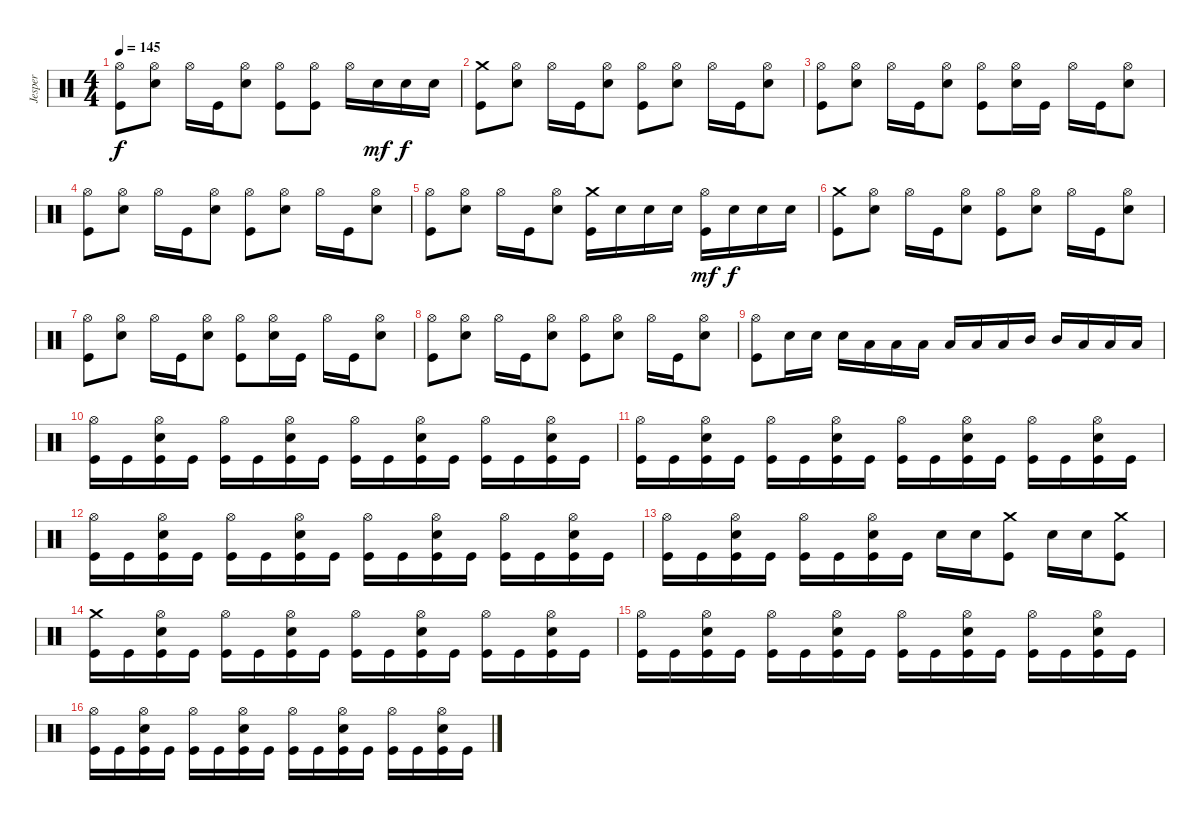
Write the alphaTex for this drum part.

\track ("Jesper" "Jesper") {instrument percussion}
\staff {score}
\articulation defaults
\ts (4 4)
\tempo 145
\clef neutral
\ks c
("Hi-Hat (open)" "Kick (hit)").8{dy f} ("Hi-Hat (open)" "Electric Snare (hit)").8 "Hi-Hat (open)".16 "Kick (hit)".16 ("Hi-Hat (open)" "Electric Snare (hit)").8 ("Hi-Hat (open)" "Kick (hit)").8 ("Hi-Hat (open)" "Kick (hit)").8 "Hi-Hat (open)".16 "Electric Snare (hit)".16{dy mf} "Electric Snare (hit)".16{dy f} "Electric Snare (hit)".16 |
("Crash medium (hit)" "Kick (hit)").8 ("Hi-Hat (open)" "Electric Snare (hit)").8 "Hi-Hat (open)".16 "Kick (hit)".16 ("Hi-Hat (open)" "Electric Snare (hit)").8 ("Hi-Hat (open)" "Kick (hit)").8 ("Hi-Hat (open)" "Electric Snare (hit)").8 "Hi-Hat (open)".16 "Kick (hit)".16 ("Hi-Hat (open)" "Electric Snare (hit)").8 |
("Hi-Hat (open)" "Kick (hit)").8 ("Hi-Hat (open)" "Electric Snare (hit)").8 "Hi-Hat (open)".16 "Kick (hit)".16 ("Hi-Hat (open)" "Electric Snare (hit)").8 ("Hi-Hat (open)" "Kick (hit)").8 ("Hi-Hat (open)" "Electric Snare (hit)").16 "Kick (hit)".16 "Hi-Hat (open)".16 "Kick (hit)".16 ("Hi-Hat (open)" "Electric Snare (hit)").8 |
("Hi-Hat (open)" "Kick (hit)").8 ("Hi-Hat (open)" "Electric Snare (hit)").8 "Hi-Hat (open)".16 "Kick (hit)".16 ("Hi-Hat (open)" "Electric Snare (hit)").8 ("Hi-Hat (open)" "Kick (hit)").8 ("Hi-Hat (open)" "Electric Snare (hit)").8 "Hi-Hat (open)".16 "Kick (hit)".16 ("Hi-Hat (open)" "Electric Snare (hit)").8 |
("Hi-Hat (open)" "Kick (hit)").8 ("Hi-Hat (open)" "Electric Snare (hit)").8 "Hi-Hat (open)".16 "Kick (hit)".16 ("Hi-Hat (open)" "Electric Snare (hit)").8 ("Crash medium (hit)" "Kick (hit)").16 "Electric Snare (hit)".16 "Electric Snare (hit)".16 "Electric Snare (hit)".16 ("Hi-Hat (open)" "Kick (hit)").16{dy mf} "Electric Snare (hit)".16{dy f} "Electric Snare (hit)".16 "Electric Snare (hit)".16 |
("Crash medium (hit)" "Kick (hit)").8 ("Hi-Hat (open)" "Electric Snare (hit)").8 "Hi-Hat (open)".16 "Kick (hit)".16 ("Hi-Hat (open)" "Electric Snare (hit)").8 ("Hi-Hat (open)" "Kick (hit)").8 ("Hi-Hat (open)" "Electric Snare (hit)").8 "Hi-Hat (open)".16 "Kick (hit)".16 ("Hi-Hat (open)" "Electric Snare (hit)").8 |
("Hi-Hat (open)" "Kick (hit)").8 ("Hi-Hat (open)" "Electric Snare (hit)").8 "Hi-Hat (open)".16 "Kick (hit)".16 ("Hi-Hat (open)" "Electric Snare (hit)").8 ("Hi-Hat (open)" "Kick (hit)").8 ("Hi-Hat (open)" "Electric Snare (hit)").16 "Kick (hit)".16 "Hi-Hat (open)".16 "Kick (hit)".16 ("Hi-Hat (open)" "Electric Snare (hit)").8 |
("Hi-Hat (open)" "Kick (hit)").8 ("Hi-Hat (open)" "Electric Snare (hit)").8 "Hi-Hat (open)".16 "Kick (hit)".16 ("Hi-Hat (open)" "Electric Snare (hit)").8 ("Hi-Hat (open)" "Kick (hit)").8 ("Hi-Hat (open)" "Electric Snare (hit)").8 "Hi-Hat (open)".16 "Kick (hit)".16 ("Hi-Hat (open)" "Electric Snare (hit)").8 |
("Hi-Hat (open)" "Kick (hit)").8 "Electric Snare (hit)".16 "Electric Snare (hit)".16 "Electric Snare (hit)".16 "Low Tom (hit)".16 "Low Tom (hit)".16 "Low Tom (hit)".16 "Low Tom (hit)".16 "Low Tom (hit)".16 "Low Tom (hit)".16 "Mid Tom (hit)".16 "Mid Tom (hit)".16 "Low Floor Tom (hit)".16 "Low Floor Tom (hit)".16 "Low Floor Tom (hit)".16 |
("Hi-Hat (open)" "Kick (hit)").16 "Kick (hit)".16 ("Hi-Hat (open)" "Electric Snare (hit)" "Kick (hit)").16 "Kick (hit)".16 ("Hi-Hat (open)" "Kick (hit)").16 "Kick (hit)".16 ("Hi-Hat (open)" "Electric Snare (hit)" "Kick (hit)").16 "Kick (hit)".16 ("Hi-Hat (open)" "Kick (hit)").16 "Kick (hit)".16 ("Hi-Hat (open)" "Electric Snare (hit)" "Kick (hit)").16 "Kick (hit)".16 ("Hi-Hat (open)" "Kick (hit)").16 "Kick (hit)".16 ("Hi-Hat (open)" "Electric Snare (hit)" "Kick (hit)").16 "Kick (hit)".16 |
("Hi-Hat (open)" "Kick (hit)").16 "Kick (hit)".16 ("Hi-Hat (open)" "Electric Snare (hit)" "Kick (hit)").16 "Kick (hit)".16 ("Hi-Hat (open)" "Kick (hit)").16 "Kick (hit)".16 ("Hi-Hat (open)" "Electric Snare (hit)" "Kick (hit)").16 "Kick (hit)".16 ("Hi-Hat (open)" "Kick (hit)").16 "Kick (hit)".16 ("Hi-Hat (open)" "Electric Snare (hit)" "Kick (hit)").16 "Kick (hit)".16 ("Hi-Hat (open)" "Kick (hit)").16 "Kick (hit)".16 ("Hi-Hat (open)" "Electric Snare (hit)" "Kick (hit)").16 "Kick (hit)".16 |
("Hi-Hat (open)" "Kick (hit)").16 "Kick (hit)".16 ("Hi-Hat (open)" "Electric Snare (hit)" "Kick (hit)").16 "Kick (hit)".16 ("Hi-Hat (open)" "Kick (hit)").16 "Kick (hit)".16 ("Hi-Hat (open)" "Electric Snare (hit)" "Kick (hit)").16 "Kick (hit)".16 ("Hi-Hat (open)" "Kick (hit)").16 "Kick (hit)".16 ("Hi-Hat (open)" "Electric Snare (hit)" "Kick (hit)").16 "Kick (hit)".16 ("Hi-Hat (open)" "Kick (hit)").16 "Kick (hit)".16 ("Hi-Hat (open)" "Electric Snare (hit)" "Kick (hit)").16 "Kick (hit)".16 |
("Hi-Hat (open)" "Kick (hit)").16 "Kick (hit)".16 ("Hi-Hat (open)" "Electric Snare (hit)" "Kick (hit)").16 "Kick (hit)".16 ("Hi-Hat (open)" "Kick (hit)").16 "Kick (hit)".16 ("Hi-Hat (open)" "Electric Snare (hit)" "Kick (hit)").16 "Kick (hit)".16 "Electric Snare (hit)".16 "Electric Snare (hit)".16 ("Crash medium (hit)" "Kick (hit)").8 "Electric Snare (hit)".16 "Electric Snare (hit)".16 ("Crash medium (hit)" "Kick (hit)").8 |
("Crash medium (hit)" "Kick (hit)").16 "Kick (hit)".16 ("Hi-Hat (open)" "Electric Snare (hit)" "Kick (hit)").16 "Kick (hit)".16 ("Hi-Hat (open)" "Kick (hit)").16 "Kick (hit)".16 ("Hi-Hat (open)" "Electric Snare (hit)" "Kick (hit)").16 "Kick (hit)".16 ("Hi-Hat (open)" "Kick (hit)").16 "Kick (hit)".16 ("Hi-Hat (open)" "Electric Snare (hit)" "Kick (hit)").16 "Kick (hit)".16 ("Hi-Hat (open)" "Kick (hit)").16 "Kick (hit)".16 ("Hi-Hat (open)" "Electric Snare (hit)" "Kick (hit)").16 "Kick (hit)".16 |
("Hi-Hat (open)" "Kick (hit)").16 "Kick (hit)".16 ("Hi-Hat (open)" "Electric Snare (hit)" "Kick (hit)").16 "Kick (hit)".16 ("Hi-Hat (open)" "Kick (hit)").16 "Kick (hit)".16 ("Hi-Hat (open)" "Electric Snare (hit)" "Kick (hit)").16 "Kick (hit)".16 ("Hi-Hat (open)" "Kick (hit)").16 "Kick (hit)".16 ("Hi-Hat (open)" "Electric Snare (hit)" "Kick (hit)").16 "Kick (hit)".16 ("Hi-Hat (open)" "Kick (hit)").16 "Kick (hit)".16 ("Hi-Hat (open)" "Electric Snare (hit)" "Kick (hit)").16 "Kick (hit)".16 |
("Hi-Hat (open)" "Kick (hit)").16 "Kick (hit)".16 ("Hi-Hat (open)" "Electric Snare (hit)" "Kick (hit)").16 "Kick (hit)".16 ("Hi-Hat (open)" "Kick (hit)").16 "Kick (hit)".16 ("Hi-Hat (open)" "Electric Snare (hit)" "Kick (hit)").16 "Kick (hit)".16 ("Hi-Hat (open)" "Kick (hit)").16 "Kick (hit)".16 ("Hi-Hat (open)" "Electric Snare (hit)" "Kick (hit)").16 "Kick (hit)".16 ("Hi-Hat (open)" "Kick (hit)").16 "Kick (hit)".16 ("Hi-Hat (open)" "Electric Snare (hit)" "Kick (hit)").16 "Kick (hit)".16
